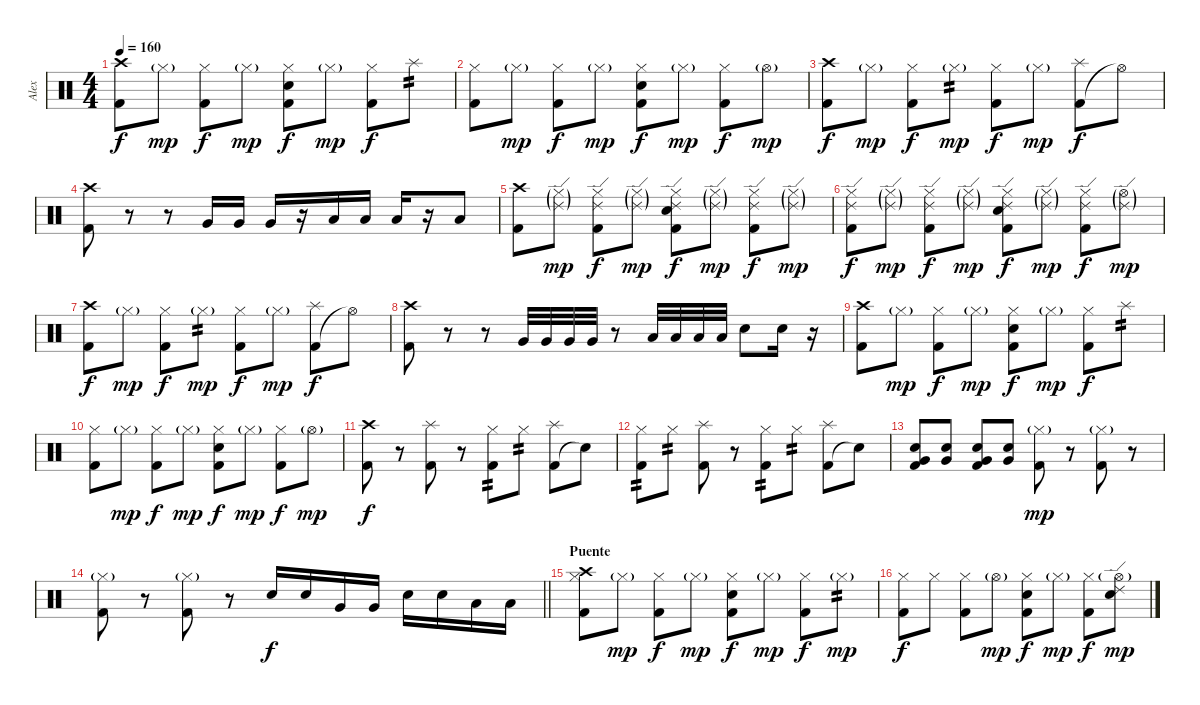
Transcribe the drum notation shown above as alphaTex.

\track ("Alex" "Alex") {instrument percussion}
\staff {score}
\articulation defaults
\ts (4 4)
\tempo 160
\clef neutral
\ks c
("Kick (hit) 2" "Crash high (hit)").8{dy f} "Hi-Hat (closed)"{g}.8{dy mp} ("Kick (hit) 2" "Hi-Hat (closed)").8{dy f} "Hi-Hat (closed)"{g}.8{dy mp} ("Kick (hit) 2" "Hi-Hat (closed)" "Snare (hit) 2").8{dy f} "Hi-Hat (closed)"{g}.8{dy mp} ("Kick (hit) 2" "Hi-Hat (closed)").8{dy f} "Splash (hit)".8{tp 2} |
("Kick (hit) 2" "Hi-Hat (closed)").8 "Hi-Hat (closed)"{g}.8{dy mp} ("Kick (hit) 2" "Hi-Hat (closed)").8{dy f} "Hi-Hat (closed)"{g}.8{dy mp} ("Kick (hit) 2" "Hi-Hat (closed)" "Snare (hit) 2").8{dy f} "Hi-Hat (closed)"{g}.8{dy mp} ("Kick (hit) 2" "Hi-Hat (closed)").8{dy f} "Hi-Hat (open)"{g}.8{dy mp} |
("Kick (hit) 2" "Crash high (hit)").8{dy f} "Hi-Hat (closed)"{g}.8{dy mp} ("Kick (hit) 2" "Hi-Hat (closed)").8{dy f} "Hi-Hat (closed)"{g}.8{tp 2 dy mp} ("Kick (hit) 2" "Hi-Hat (closed)").8{dy f} "Hi-Hat (closed)"{g}.8{dy mp} ("Kick (hit) 2" "Splash (hit)").8{dy f} "Hi-Hat (open)"{t}.8 |
("Kick (hit) 2" "Crash high (hit)").8 r.8 r.8 "Very Low Tom (hit)".16 "Very Low Tom (hit)".16 "Very Low Tom (hit)".16 r.16 "Low Tom (hit)".16 "Low Tom (hit)".16 "Low Tom (hit)".16 r.16 "Low Tom (hit)".8 |
("Kick (hit) 2" "Crash high (hit)").8 ("Ride (edge) 2"{g} "Hi-Hat (closed)"{g}).8{dy mp} ("Kick (hit) 2" "Ride (edge) 2" "Hi-Hat (closed)").8{dy f} ("Ride (edge) 2"{g} "Hi-Hat (closed)"{g}).8{dy mp} ("Kick (hit) 2" "Ride (edge) 2" "Snare (hit) 2" "Hi-Hat (closed)").8{dy f} ("Ride (edge) 2"{g} "Hi-Hat (closed)"{g}).8{dy mp} ("Kick (hit) 2" "Ride (edge) 2" "Hi-Hat (closed)").8{dy f} ("Ride (edge) 2"{g} "Hi-Hat (closed)"{g}).8{dy mp} |
("Kick (hit) 2" "Hi-Hat (closed)" "Ride (edge) 2").8{dy f} ("Hi-Hat (closed)"{g} "Ride (edge) 2"{g}).8{dy mp} ("Kick (hit) 2" "Hi-Hat (closed)" "Ride (edge) 2").8{dy f} ("Hi-Hat (closed)"{g} "Ride (edge) 2"{g}).8{dy mp} ("Kick (hit) 2" "Hi-Hat (closed)" "Snare (hit) 2" "Ride (edge) 2").8{dy f} ("Hi-Hat (closed)"{g} "Ride (edge) 2"{g}).8{dy mp} ("Kick (hit) 2" "Hi-Hat (closed)" "Ride (edge) 2").8{dy f} ("Hi-Hat (open)"{g} "Ride (edge) 2"{g}).8{dy mp} |
("Kick (hit) 2" "Crash high (hit)").8{dy f} "Hi-Hat (closed)"{g}.8{dy mp} ("Kick (hit) 2" "Hi-Hat (closed)").8{dy f} "Hi-Hat (closed)"{g}.8{tp 2 dy mp} ("Kick (hit) 2" "Hi-Hat (closed)").8{dy f} "Hi-Hat (closed)"{g}.8{dy mp} ("Kick (hit) 2" "Splash (hit)").8{dy f} "Hi-Hat (open)"{t}.8 |
("Kick (hit) 2" "Crash high (hit)").8 r.8 r.8 "Very Low Tom (hit)".32 "Very Low Tom (hit)".32 "Very Low Tom (hit)".32 "Very Low Tom (hit)".32 r.8 "Low Tom (hit)".32 "Low Tom (hit)".32 "Low Tom (hit)".32 "Low Tom (hit)".32 "Snare (hit) 2".8 "Snare (hit) 2".16 r.16 |
("Kick (hit) 2" "Crash high (hit)").8 "Hi-Hat (closed)"{g}.8{dy mp} ("Kick (hit) 2" "Hi-Hat (closed)").8{dy f} "Hi-Hat (closed)"{g}.8{dy mp} ("Kick (hit) 2" "Hi-Hat (closed)" "Snare (hit) 2").8{dy f} "Hi-Hat (closed)"{g}.8{dy mp} ("Kick (hit) 2" "Hi-Hat (closed)").8{dy f} "Splash (hit)".8{tp 2} |
("Kick (hit) 2" "Hi-Hat (closed)").8 "Hi-Hat (closed)"{g}.8{dy mp} ("Kick (hit) 2" "Hi-Hat (closed)").8{dy f} "Hi-Hat (closed)"{g}.8{dy mp} ("Kick (hit) 2" "Hi-Hat (closed)" "Snare (hit) 2").8{dy f} "Hi-Hat (closed)"{g}.8{dy mp} ("Kick (hit) 2" "Hi-Hat (closed)").8{dy f} "Hi-Hat (open)"{g}.8{dy mp} |
("Kick (hit) 2" "Crash high (hit)").8{dy f} r.8 ("Kick (hit) 2" "Splash (hit)").8 r.8 ("Kick (hit) 2" "Hi-Hat (closed)").8{tp 2} "Hi-Hat (closed)".8{tp 2} ("Kick (hit) 2" "Splash (hit)").8 "Snare (hit)"{t}.8 |
("Kick (hit) 2" "Hi-Hat (closed)").8{tp 2} "Hi-Hat (closed)".8{tp 2} ("Kick (hit) 2" "Splash (hit)").8 r.8 ("Kick (hit) 2" "Hi-Hat (closed)").8{tp 2} "Hi-Hat (closed)".8{tp 2} ("Kick (hit) 2" "Splash (hit)").8 "Snare (hit)"{t}.8 |
("Very Low Tom (hit)" "Kick (hit) 2" "Snare (hit) 2").8 ("Very Low Tom (hit)" "Snare (hit) 2").8 ("Very Low Tom (hit)" "Kick (hit) 2" "Snare (hit) 2").8 ("Very Low Tom (hit)" "Snare (hit) 2").8 ("Kick (hit) 2" "Hi-Hat (closed)"{g}).8{dy mp} r.8 ("Kick (hit) 2" "Hi-Hat (closed)"{g}).8 r.8 |
\barLineRight lightlight
("Kick (hit) 2" "Hi-Hat (closed)"{g}).8 r.8 ("Kick (hit) 2" "Hi-Hat (closed)"{g}).8 r.8 "Snare (hit) 2".16{dy f} "Snare (hit) 2".16 "Very Low Tom (hit)".16 "Very Low Tom (hit)".16 "Snare (hit) 2".16 "Snare (hit) 2".16 "Low Tom (hit)".16 "Low Tom (hit)".16 |
\section ("" "Puente")
("Kick (hit) 2" "Hi-Hat (closed)" "Crash high (hit)").8 "Hi-Hat (closed)"{g}.8{dy mp} ("Kick (hit) 2" "Hi-Hat (closed)").8{dy f} "Hi-Hat (closed)"{g}.8{dy mp} ("Kick (hit) 2" "Hi-Hat (closed)" "Snare (hit) 2").8{dy f} "Hi-Hat (closed)"{g}.8{dy mp} ("Kick (hit) 2" "Hi-Hat (closed)").8{dy f} "Hi-Hat (closed)"{g}.8{tp 2 dy mp} |
("Kick (hit) 2" "Hi-Hat (closed)").8{dy f} "Hi-Hat (closed)".8 ("Kick (hit) 2" "Hi-Hat (closed)").8 "Hi-Hat (open)"{g}.8{dy mp} ("Kick (hit) 2" "Hi-Hat (closed)" "Snare (hit) 2").8{dy f} "Hi-Hat (closed)"{g}.8{dy mp} ("Kick (hit) 2" "Hi-Hat (closed)").8{dy f} ("Hi-Hat (open)"{g} "Ride (edge) 2" "Snare (hit) 2").8{dy mp}
